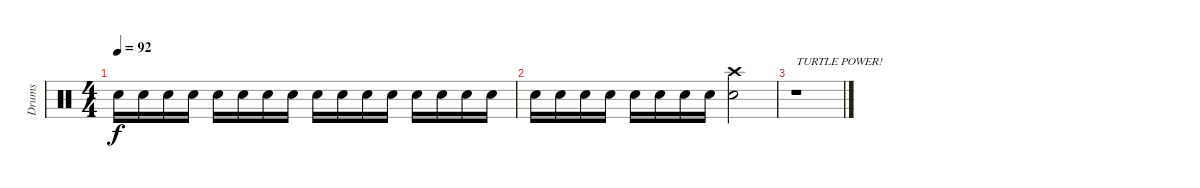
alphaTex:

\track ("Drums" "Drums") {instrument percussion}
\staff {score}
\articulation defaults
\ts (4 4)
\tempo 92
\clef neutral
\ks c "Snare (hit) 2".16{dy f} "Snare (hit) 2".16 "Snare (hit) 2".16 "Snare (hit) 2".16 "Snare (hit) 2".16 "Snare (hit) 2".16 "Snare (hit) 2".16 "Snare (hit) 2".16 "Snare (hit) 2".16 "Snare (hit) 2".16 "Snare (hit) 2".16 "Snare (hit) 2".16 "Snare (hit) 2".16 "Snare (hit) 2".16 "Snare (hit) 2".16 "Snare (hit) 2".16
|
"Snare (hit) 2".16 "Snare (hit) 2".16 "Snare (hit) 2".16 "Snare (hit) 2".16 "Snare (hit) 2".16 "Snare (hit) 2".16 "Snare (hit) 2".16 "Snare (hit) 2".16 ("Crash high (hit)" "Snare (hit) 2").2 |
r.1{txt "TURTLE POWER!"}
